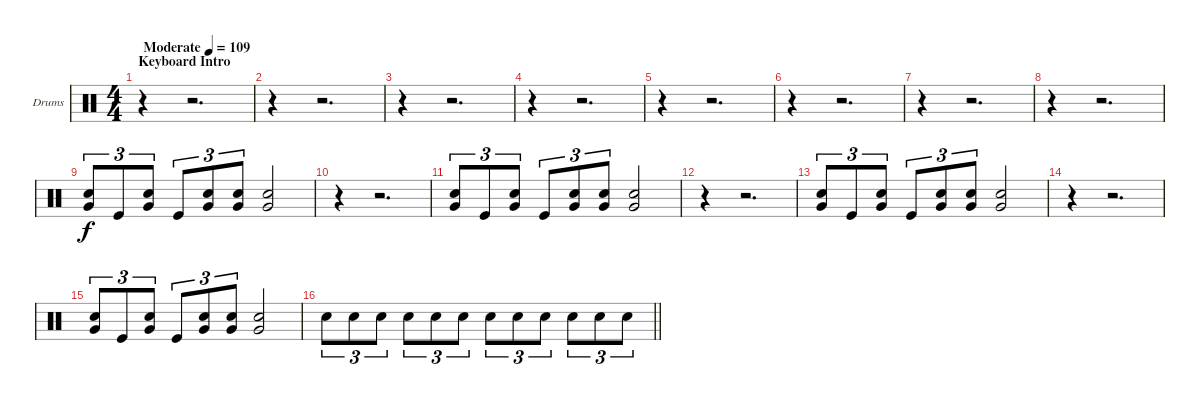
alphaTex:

\bracketExtendMode groupsimilarinstruments
\firstSystemTrackNameOrientation horizontal
\otherSystemsTrackNameOrientation horizontal
\track ("Drumkit" "Drums") {instrument percussion}
\staff {score}
\articulation defaults
\ts (4 4)
\beaming (8 2 2 2 2)
\section ("" "Keyboard Intro")
\tempo (109 "Moderate")
\clef neutral
\ks c
r.4{dy f} r.2{d} |
r.4 r.2{d} |
r.4 r.2{d} |
r.4 r.2{d} |
r.4 r.2{d} |
r.4 r.2{d} |
r.4 r.2{d} |
r.4 r.2{d} |
("Very Low Tom (hit)" "Snare (hit) 2").8{tu (3 2)} "Kick (hit)".8{tu (3 2)} ("Very Low Tom (hit)" "Snare (hit) 2").8{tu (3 2)} "Kick (hit)".8{tu (3 2)} ("Very Low Tom (hit)" "Snare (hit) 2").8{tu (3 2)} ("Very Low Tom (hit)" "Snare (hit) 2").8{tu (3 2)} ("Very Low Tom (hit)" "Snare (hit) 2").2 |
r.4 r.2{d} |
("Very Low Tom (hit)" "Snare (hit) 2").8{tu (3 2)} "Kick (hit)".8{tu (3 2)} ("Very Low Tom (hit)" "Snare (hit) 2").8{tu (3 2)} "Kick (hit)".8{tu (3 2)} ("Very Low Tom (hit)" "Snare (hit) 2").8{tu (3 2)} ("Very Low Tom (hit)" "Snare (hit) 2").8{tu (3 2)} ("Very Low Tom (hit)" "Snare (hit) 2").2 |
r.4 r.2{d} |
("Very Low Tom (hit)" "Snare (hit) 2").8{tu (3 2)} "Kick (hit)".8{tu (3 2)} ("Very Low Tom (hit)" "Snare (hit) 2").8{tu (3 2)} "Kick (hit)".8{tu (3 2)} ("Very Low Tom (hit)" "Snare (hit) 2").8{tu (3 2)} ("Very Low Tom (hit)" "Snare (hit) 2").8{tu (3 2)} ("Very Low Tom (hit)" "Snare (hit) 2").2 |
r.4 r.2{d} |
("Very Low Tom (hit)" "Snare (hit) 2").8{tu (3 2)} "Kick (hit)".8{tu (3 2)} ("Very Low Tom (hit)" "Snare (hit) 2").8{tu (3 2)} "Kick (hit)".8{tu (3 2)} ("Very Low Tom (hit)" "Snare (hit) 2").8{tu (3 2)} ("Very Low Tom (hit)" "Snare (hit) 2").8{tu (3 2)} ("Very Low Tom (hit)" "Snare (hit) 2").2 |
\barLineRight lightlight "Snare (hit) 2".8{tu (3 2)} "Snare (hit) 2".8{tu (3 2)} "Snare (hit) 2".8{tu (3 2)} "Snare (hit) 2".8{tu (3 2)} "Snare (hit) 2".8{tu (3 2)} "Snare (hit) 2".8{tu (3 2)} "Snare (hit) 2".8{tu (3 2)} "Snare (hit) 2".8{tu (3 2)} "Snare (hit) 2".8{tu (3 2)} "Snare (hit) 2".8{tu (3 2)} "Snare (hit) 2".8{tu (3 2)} "Snare (hit) 2".8{tu (3 2)}
